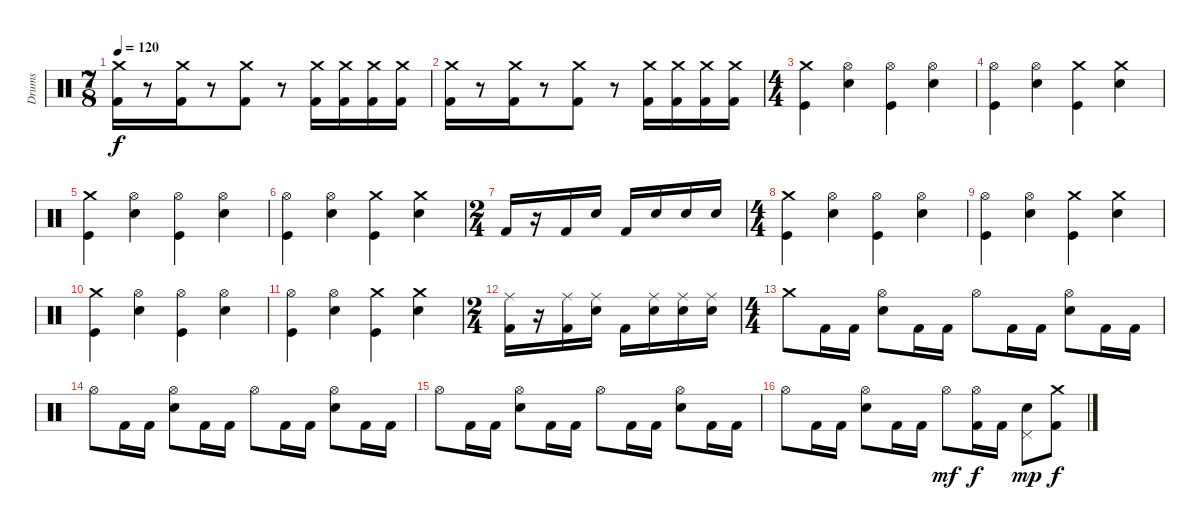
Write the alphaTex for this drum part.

\track ("Drums" "Drums") {instrument percussion}
\staff {score}
\articulation defaults
\ts (7 8)
\tempo 120
\clef neutral
\ks c
("Crash medium (hit)" "Kick (hit) 2").16{dy f} r.8 ("Crash medium (hit)" "Kick (hit) 2").16 r.8 ("Crash medium (hit)" "Kick (hit) 2").8 r.8 ("Crash medium (hit)" "Kick (hit) 2").16 ("Crash medium (hit)" "Kick (hit) 2").16 ("Crash medium (hit)" "Kick (hit) 2").16 ("Crash medium (hit)" "Kick (hit) 2").16 |
("Crash medium (hit)" "Kick (hit) 2").16 r.8 ("Crash medium (hit)" "Kick (hit) 2").16 r.8 ("Crash medium (hit)" "Kick (hit) 2").8 r.8 ("Crash medium (hit)" "Kick (hit) 2").16 ("Crash medium (hit)" "Kick (hit) 2").16 ("Crash medium (hit)" "Kick (hit) 2").16 ("Crash medium (hit)" "Kick (hit) 2").16 |
\ts (4 4)
("Crash medium (hit)" "Kick (hit)").4 ("Hi-Hat (open)" "Snare (hit) 2").4 ("Hi-Hat (open)" "Kick (hit)").4 ("Hi-Hat (open)" "Snare (hit) 2").4 |
("Hi-Hat (open)" "Kick (hit)").4 ("Hi-Hat (open)" "Snare (hit) 2").4 ("Crash medium (hit)" "Kick (hit)").4 ("Crash medium (hit)" "Snare (hit) 2").4 |
("Crash medium (hit)" "Kick (hit)").4 ("Hi-Hat (open)" "Snare (hit) 2").4 ("Hi-Hat (open)" "Kick (hit)").4 ("Hi-Hat (open)" "Snare (hit) 2").4 |
("Hi-Hat (open)" "Kick (hit)").4 ("Hi-Hat (open)" "Snare (hit) 2").4 ("Crash medium (hit)" "Kick (hit)").4 ("Crash medium (hit)" "Snare (hit) 2").4 |
\ts (2 4)
"Kick (hit) 2".16 r.16 "Kick (hit) 2".16 "Snare (hit) 2".16 "Kick (hit) 2".16 "Snare (hit) 2".16 "Snare (hit) 2".16 "Snare (hit) 2".16 |
\ts (4 4)
("Crash medium (hit)" "Kick (hit)").4 ("Hi-Hat (open)" "Snare (hit) 2").4 ("Hi-Hat (open)" "Kick (hit)").4 ("Hi-Hat (open)" "Snare (hit) 2").4 |
("Hi-Hat (open)" "Kick (hit)").4 ("Hi-Hat (open)" "Snare (hit) 2").4 ("Crash medium (hit)" "Kick (hit)").4 ("Crash medium (hit)" "Snare (hit) 2").4 |
("Crash medium (hit)" "Kick (hit)").4 ("Hi-Hat (open)" "Snare (hit) 2").4 ("Hi-Hat (open)" "Kick (hit)").4 ("Hi-Hat (open)" "Snare (hit) 2").4 |
("Hi-Hat (open)" "Kick (hit)").4 ("Hi-Hat (open)" "Snare (hit) 2").4 ("Crash medium (hit)" "Kick (hit)").4 ("Crash medium (hit)" "Snare (hit) 2").4 |
\ts (2 4)
("Ride (middle)" "Kick (hit) 2").16 r.16 ("Ride (middle)" "Kick (hit) 2").16 ("Ride (middle)" "Snare (hit) 2").16 "Kick (hit) 2".16 ("Ride (middle)" "Snare (hit) 2").16 ("Ride (middle)" "Snare (hit) 2").16 ("Ride (middle)" "Snare (hit) 2").16 |
\ts (4 4)
"Crash medium (hit)".8 "Kick (hit) 2".16 "Kick (hit) 2".16 ("Hi-Hat (open)" "Snare (hit) 2").8 "Kick (hit) 2".16 "Kick (hit) 2".16 "Hi-Hat (open)".8 "Kick (hit) 2".16 "Kick (hit) 2".16 ("Hi-Hat (open)" "Snare (hit) 2").8 "Kick (hit) 2".16 "Kick (hit) 2".16 |
"Hi-Hat (open)".8 "Kick (hit) 2".16 "Kick (hit) 2".16 ("Hi-Hat (open)" "Snare (hit) 2").8 "Kick (hit) 2".16 "Kick (hit) 2".16 "Hi-Hat (open)".8 "Kick (hit) 2".16 "Kick (hit) 2".16 ("Hi-Hat (open)" "Snare (hit) 2").8 "Kick (hit) 2".16 "Kick (hit) 2".16 |
"Hi-Hat (open)".8 "Kick (hit) 2".16 "Kick (hit) 2".16 ("Hi-Hat (open)" "Snare (hit) 2").8 "Kick (hit) 2".16 "Kick (hit) 2".16 "Hi-Hat (open)".8 "Kick (hit) 2".16 "Kick (hit) 2".16 ("Hi-Hat (open)" "Snare (hit) 2").8 "Kick (hit) 2".16 "Kick (hit) 2".16 |
"Hi-Hat (open)".8 "Kick (hit) 2".16 "Kick (hit) 2".16 ("Hi-Hat (open)" "Snare (hit) 2").8 "Kick (hit) 2".16 "Kick (hit) 2".16 "Hi-Hat (open)".8{dy mf} ("Hi-Hat (open)" "Kick (hit) 2").16{dy f} "Kick (hit) 2".16 ("Pedal Hi-Hat (hit)" "Snare (hit) 2").8{dy mp} ("Crash medium (hit)" "Kick (hit) 2").8{dy f}
